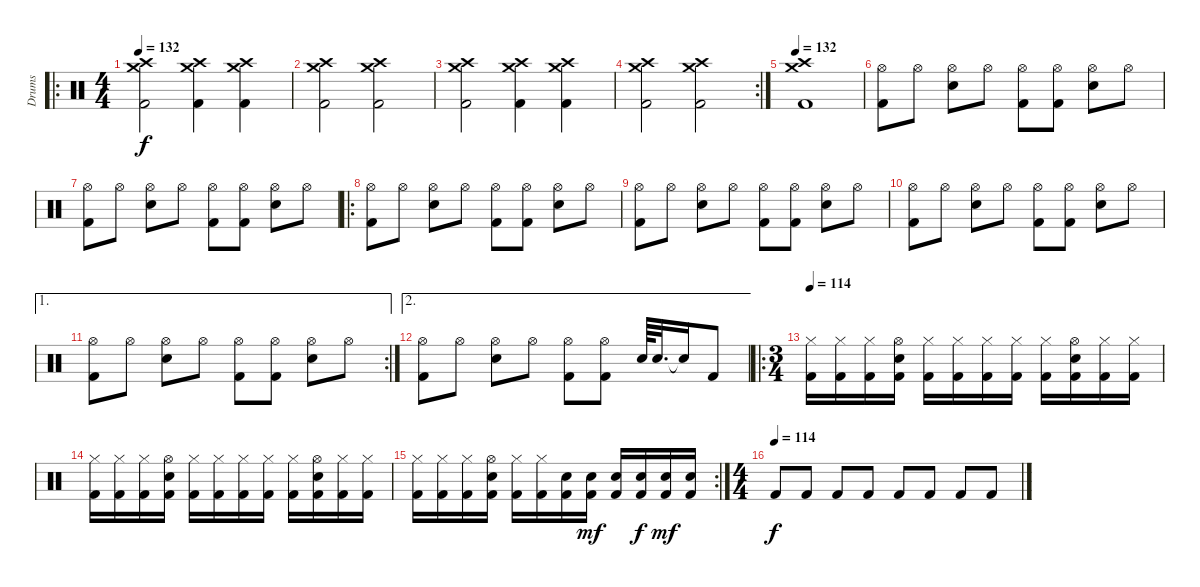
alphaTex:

\track ("Drums" "Drums") {instrument percussion}
\staff {score}
\articulation defaults
\ro
\ts (4 4)
\tempo 132
\tempo 80
\tempo 132
\clef neutral
\ks c
("Crash medium (hit)" "Crash high (hit)" "Kick (hit) 2").2{dy f} ("Crash medium (hit)" "Crash high (hit)" "Kick (hit) 2").4 ("Crash medium (hit)" "Crash high (hit)" "Kick (hit) 2").4 |
("Crash medium (hit)" "Crash high (hit)" "Kick (hit) 2").2 ("Crash medium (hit)" "Crash high (hit)" "Kick (hit) 2").2 |
("Crash medium (hit)" "Crash high (hit)" "Kick (hit) 2").2 ("Crash medium (hit)" "Crash high (hit)" "Kick (hit) 2").4 ("Crash medium (hit)" "Crash high (hit)" "Kick (hit) 2").4 |
\rc 2
("Crash medium (hit)" "Crash high (hit)" "Kick (hit) 2").2 ("Crash medium (hit)" "Crash high (hit)" "Kick (hit) 2").2 |
\tempo 132
("Crash medium (hit)" "Crash high (hit)" "Kick (hit) 2").1 |
("Hi-Hat (open)" "Kick (hit) 2").8 "Hi-Hat (open)".8 ("Hi-Hat (open)" "Snare (hit) 2").8 "Hi-Hat (open)".8 ("Hi-Hat (open)" "Kick (hit) 2").8 ("Hi-Hat (open)" "Kick (hit) 2").8 ("Hi-Hat (open)" "Snare (hit) 2").8 "Hi-Hat (open)".8 |
("Hi-Hat (open)" "Kick (hit) 2").8 "Hi-Hat (open)".8 ("Hi-Hat (open)" "Snare (hit) 2").8 "Hi-Hat (open)".8 ("Hi-Hat (open)" "Kick (hit) 2").8 ("Hi-Hat (open)" "Kick (hit) 2").8 ("Hi-Hat (open)" "Snare (hit) 2").8 "Hi-Hat (open)".8 |
\ro
("Hi-Hat (open)" "Kick (hit) 2").8 "Hi-Hat (open)".8 ("Hi-Hat (open)" "Snare (hit) 2").8 "Hi-Hat (open)".8 ("Hi-Hat (open)" "Kick (hit) 2").8 ("Hi-Hat (open)" "Kick (hit) 2").8 ("Hi-Hat (open)" "Snare (hit) 2").8 "Hi-Hat (open)".8 |
("Hi-Hat (open)" "Kick (hit) 2").8 "Hi-Hat (open)".8 ("Hi-Hat (open)" "Snare (hit) 2").8 "Hi-Hat (open)".8 ("Hi-Hat (open)" "Kick (hit) 2").8 ("Hi-Hat (open)" "Kick (hit) 2").8 ("Hi-Hat (open)" "Snare (hit) 2").8 "Hi-Hat (open)".8 |
("Hi-Hat (open)" "Kick (hit) 2").8 "Hi-Hat (open)".8 ("Hi-Hat (open)" "Snare (hit) 2").8 "Hi-Hat (open)".8 ("Hi-Hat (open)" "Kick (hit) 2").8 ("Hi-Hat (open)" "Kick (hit) 2").8 ("Hi-Hat (open)" "Snare (hit) 2").8 "Hi-Hat (open)".8 |
\ae 1
\rc 2
("Hi-Hat (open)" "Kick (hit) 2").8 "Hi-Hat (open)".8 ("Hi-Hat (open)" "Snare (hit) 2").8 "Hi-Hat (open)".8 ("Hi-Hat (open)" "Kick (hit) 2").8 ("Hi-Hat (open)" "Kick (hit) 2").8 ("Hi-Hat (open)" "Snare (hit) 2").8 "Hi-Hat (open)".8 |
\ae 2
("Hi-Hat (open)" "Kick (hit) 2").8 "Hi-Hat (open)".8 ("Hi-Hat (open)" "Snare (hit) 2").8 "Hi-Hat (open)".8 ("Hi-Hat (open)" "Kick (hit) 2").8 ("Hi-Hat (open)" "Kick (hit) 2").8 "Snare (hit) 2".64 "Snare (hit) 2".32{d} "Snare (hit)"{t}.16 "Kick (hit) 2".8 |
\ro
\ts (3 4)
\tempo 114
("Hi-Hat (closed)" "Kick (hit) 2").16 ("Hi-Hat (closed)" "Kick (hit) 2").16 ("Hi-Hat (closed)" "Kick (hit) 2").16 ("Hi-Hat (open)" "Snare (hit) 2" "Kick (hit) 2").16 ("Hi-Hat (closed)" "Kick (hit) 2").16 ("Hi-Hat (closed)" "Kick (hit) 2").16 ("Hi-Hat (closed)" "Kick (hit) 2").16 ("Hi-Hat (closed)" "Kick (hit) 2").16 ("Hi-Hat (closed)" "Kick (hit) 2").16 ("Hi-Hat (open)" "Snare (hit) 2" "Kick (hit) 2").16 ("Hi-Hat (closed)" "Kick (hit) 2").16 ("Hi-Hat (closed)" "Kick (hit) 2").16 |
("Hi-Hat (closed)" "Kick (hit) 2").16 ("Hi-Hat (closed)" "Kick (hit) 2").16 ("Hi-Hat (closed)" "Kick (hit) 2").16 ("Hi-Hat (open)" "Snare (hit) 2" "Kick (hit) 2").16 ("Hi-Hat (closed)" "Kick (hit) 2").16 ("Hi-Hat (closed)" "Kick (hit) 2").16 ("Hi-Hat (closed)" "Kick (hit) 2").16 ("Hi-Hat (closed)" "Kick (hit) 2").16 ("Hi-Hat (closed)" "Kick (hit) 2").16 ("Hi-Hat (open)" "Snare (hit) 2" "Kick (hit) 2").16 ("Hi-Hat (closed)" "Kick (hit) 2").16 ("Hi-Hat (closed)" "Kick (hit) 2").16 |
\rc 2
("Hi-Hat (closed)" "Kick (hit) 2").16 ("Hi-Hat (closed)" "Kick (hit) 2").16 ("Hi-Hat (closed)" "Kick (hit) 2").16 ("Hi-Hat (open)" "Snare (hit) 2" "Kick (hit) 2").16 ("Hi-Hat (closed)" "Kick (hit) 2").16 ("Hi-Hat (closed)" "Kick (hit) 2").16 ("Snare (hit) 2" "Kick (hit) 2").16 ("Snare (hit) 2" "Kick (hit) 2").16{dy mf} ("Snare (hit) 2" "Kick (hit) 2").16 ("Snare (hit) 2" "Kick (hit) 2").16{dy f} ("Snare (hit) 2" "Kick (hit) 2").16{dy mf} ("Snare (hit) 2" "Kick (hit) 2").16 |
\ts (4 4)
\tempo (114)
"Kick (hit) 2".8{dy f} "Kick (hit) 2".8 "Kick (hit) 2".8 "Kick (hit) 2".8 "Kick (hit) 2".8 "Kick (hit) 2".8 "Kick (hit) 2".8 "Kick (hit) 2".8
